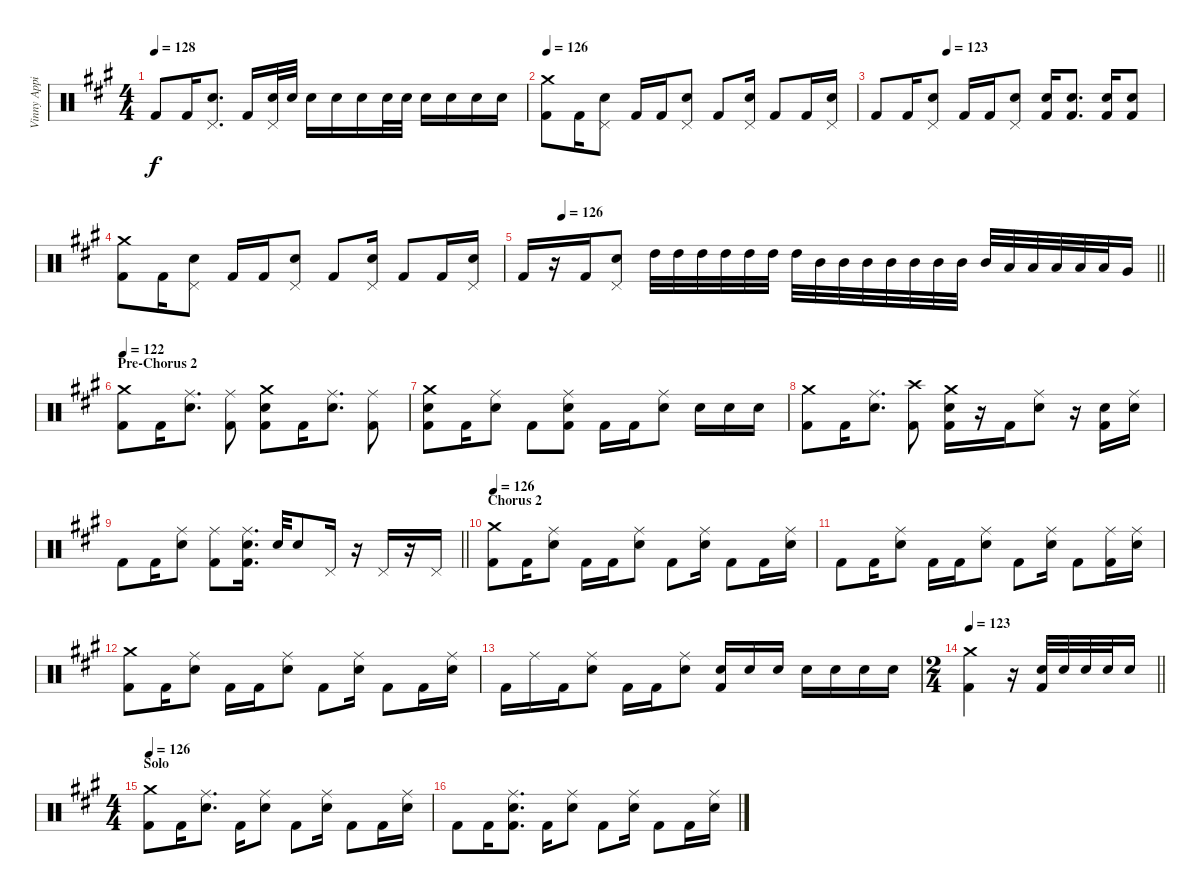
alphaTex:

\track ("Vinny Appice" "Vinny Appi") {instrument percussion}
\staff {score}
\articulation defaults
\ts (4 4)
\tempo 128
\clef neutral
\ks f#minor "Kick (hit) 2".8{dy f} "Kick (hit) 2".16
("Snare (hit) 2" "Pedal Hi-Hat (hit)").8{d} "Kick (hit) 2".16 ("Snare (hit) 2" "Pedal Hi-Hat (hit)").32 "Snare (hit) 2".32 "Snare (hit) 2".16 "Snare (hit) 2".16 "Snare (hit) 2".16 "Snare (hit) 2".32 "Snare (hit) 2".32 "Snare (hit) 2".16 "Snare (hit) 2".16 "Snare (hit) 2".16 "Snare (hit) 2".16 |
\tempo 126
("Crash medium (hit)" "Kick (hit) 2").8 "Kick (hit) 2".16 ("Snare (hit) 2" "Pedal Hi-Hat (hit)").8 "Kick (hit) 2".16 "Kick (hit) 2".16 ("Snare (hit) 2" "Pedal Hi-Hat (hit)").8 "Kick (hit) 2".8 ("Snare (hit) 2" "Pedal Hi-Hat (hit)").16 "Kick (hit) 2".8 "Kick (hit) 2".16 ("Snare (hit) 2" "Pedal Hi-Hat (hit)").16 |
\tempo (123 0.25)
"Kick (hit) 2".8 "Kick (hit) 2".16 ("Snare (hit) 2" "Pedal Hi-Hat (hit)").8 "Kick (hit) 2".16 "Kick (hit) 2".16 ("Snare (hit) 2" "Pedal Hi-Hat (hit)").8 ("Kick (hit) 2" "Snare (hit) 2").16 ("Snare (hit) 2" "Kick (hit) 2").8{d} ("Snare (hit) 2" "Kick (hit) 2").16 ("Kick (hit) 2" "Snare (hit) 2").8 |
("Crash medium (hit)" "Kick (hit) 2").8 "Kick (hit) 2".16 ("Snare (hit) 2" "Pedal Hi-Hat (hit)").8 "Kick (hit) 2".16 "Kick (hit) 2".16 ("Snare (hit) 2" "Pedal Hi-Hat (hit)").8 "Kick (hit) 2".8 ("Snare (hit) 2" "Pedal Hi-Hat (hit)").16 "Kick (hit) 2".8 "Kick (hit) 2".16 ("Snare (hit) 2" "Pedal Hi-Hat (hit)").16 |
\tempo (126 0.0625)
\barLineRight lightlight "Kick (hit) 2".16
r.16 "Kick (hit) 2".16 ("Pedal Hi-Hat (hit)" "Snare (hit) 2").8 "High Tom (hit)".32 "High Tom (hit)".32 "High Tom (hit)".32 "High Tom (hit)".32 "High Tom (hit)".32 "High Tom (hit)".32 "High Tom (hit)".32 "Mid Tom (hit)".32 "Mid Tom (hit)".32 "Mid Tom (hit)".32 "Mid Tom (hit)".32 "Mid Tom (hit)".32 "Mid Tom (hit)".32 "Mid Tom (hit)".32 "Mid Tom (hit)".32 "Low Tom (hit)".32 "Low Tom (hit)".32 "Low Tom (hit)".32 "Low Tom (hit)".32 "Low Tom (hit)".32 "Very Low Tom (hit)".16 |
\section ("" "Pre-Chorus 2")
\tempo 122
("Crash medium (hit)" "Kick (hit) 2").8 "Kick (hit) 2".16 ("Ride (middle)" "Snare (hit) 2").8{d} ("Kick (hit) 2" "Ride (middle)").8 ("Kick (hit) 2" "Snare (hit) 2" "Crash medium (hit)").8 "Kick (hit) 2".16 ("Ride (middle)" "Snare (hit) 2").8{d} ("Kick (hit) 2" "Ride (middle)").8 |
("Crash medium (hit)" "Snare (hit) 2" "Kick (hit) 2").8 "Kick (hit) 2".16 ("Snare (hit) 2" "Ride (middle)").8 "Kick (hit) 2".8 ("Kick (hit) 2" "Ride (middle)" "Snare (hit) 2").8 "Kick (hit) 2".16 "Kick (hit) 2".16 ("Snare (hit) 2" "Ride (middle)").8 "Snare (hit) 2".16 "Snare (hit) 2".16 "Snare (hit) 2".16 |
("Crash medium (hit)" "Kick (hit) 2").8 "Kick (hit) 2".16 ("Ride (middle)" "Snare (hit) 2").8{d} ("Crash high (hit)" "Kick (hit) 2").8 ("Kick (hit) 2" "Crash medium (hit)" "Snare (hit) 2").16 r.16 "Kick (hit) 2".16 ("Ride (middle)" "Snare (hit) 2").8 r.16 ("Snare (hit) 2" "Kick (hit) 2").16 ("Snare (hit) 2" "Ride (middle)").16 |
\barLineRight lightlight "Kick (hit) 2".8 "Kick (hit) 2".16
("Snare (hit) 2" "Ride (middle)").8 ("Ride (middle)" "Kick (hit) 2").8 ("Kick (hit) 2" "Snare (hit) 2" "Ride (middle)").16{d} "Snare (hit) 2".32 "Snare (hit) 2".8 "Pedal Hi-Hat (hit)".16 r.16 "Pedal Hi-Hat (hit)".16 r.16 "Pedal Hi-Hat (hit)".16 |
\section ("" "Chorus 2")
\tempo 126
("Crash medium (hit)" "Kick (hit) 2").8 "Kick (hit) 2".16 ("Ride (middle)" "Snare (hit) 2").8 "Kick (hit) 2".16 "Kick (hit) 2".16 ("Ride (middle)" "Snare (hit) 2").8 "Kick (hit) 2".8 ("Ride (middle)" "Snare (hit) 2").16 "Kick (hit) 2".8 "Kick (hit) 2".16 ("Ride (middle)" "Snare (hit) 2").16 |
"Kick (hit) 2".8 "Kick (hit) 2".16 ("Ride (middle)" "Snare (hit) 2").8 "Kick (hit) 2".16 "Kick (hit) 2".16 ("Snare (hit) 2" "Ride (middle)").8 "Kick (hit) 2".8 ("Snare (hit) 2" "Ride (middle)").16 "Kick (hit) 2".8 ("Kick (hit) 2" "Ride (middle)").16 ("Ride (middle)" "Snare (hit) 2").16 |
("Crash medium (hit)" "Kick (hit) 2").8 "Kick (hit) 2".16 ("Ride (middle)" "Snare (hit) 2").8 "Kick (hit) 2".16 "Kick (hit) 2".16 ("Ride (middle)" "Snare (hit) 2").8 "Kick (hit) 2".8 ("Ride (middle)" "Snare (hit) 2").16 "Kick (hit) 2".8 "Kick (hit) 2".16 ("Ride (middle)" "Snare (hit) 2").16 |
"Kick (hit) 2".16 "Ride (middle)".16 "Kick (hit) 2".16 ("Ride (middle)" "Snare (hit) 2").8 "Kick (hit) 2".16 "Kick (hit) 2".16 ("Snare (hit) 2" "Ride (middle)").8 ("Kick (hit) 2" "Snare (hit) 2").16 "Snare (hit) 2".16 "Snare (hit) 2".16 "Snare (hit) 2".16 "Snare (hit) 2".16 "Snare (hit) 2".16 "Snare (hit) 2".16 |
\ts (2 4)
\tempo 123
\barLineRight lightlight
("Crash medium (hit)" "Kick (hit) 2").4 r.16 ("Snare (hit) 2" "Kick (hit) 2").32 "Snare (hit) 2".32 "Snare (hit) 2".32 "Snare (hit) 2".32 "Snare (hit) 2".16 |
\ts (4 4)
\section ("" "Solo")
\tempo 126
("Crash medium (hit)" "Kick (hit) 2").8 "Kick (hit) 2".16 ("Snare (hit) 2" "Ride (middle)").8{d} "Kick (hit) 2".16 ("Ride (middle)" "Snare (hit) 2").8 "Kick (hit) 2".8 ("Ride (middle)" "Snare (hit) 2").16 "Kick (hit) 2".8 "Kick (hit) 2".16 ("Ride (middle)" "Snare (hit) 2").16 |
"Kick (hit) 2".8 "Kick (hit) 2".16 ("Kick (hit) 2" "Snare (hit) 2" "Ride (middle)").8{d} "Kick (hit) 2".16 ("Snare (hit) 2" "Ride (middle)").8 "Kick (hit) 2".8 ("Snare (hit) 2" "Ride (middle)").16 "Kick (hit) 2".8 "Kick (hit) 2".16 ("Ride (middle)" "Snare (hit) 2").16
